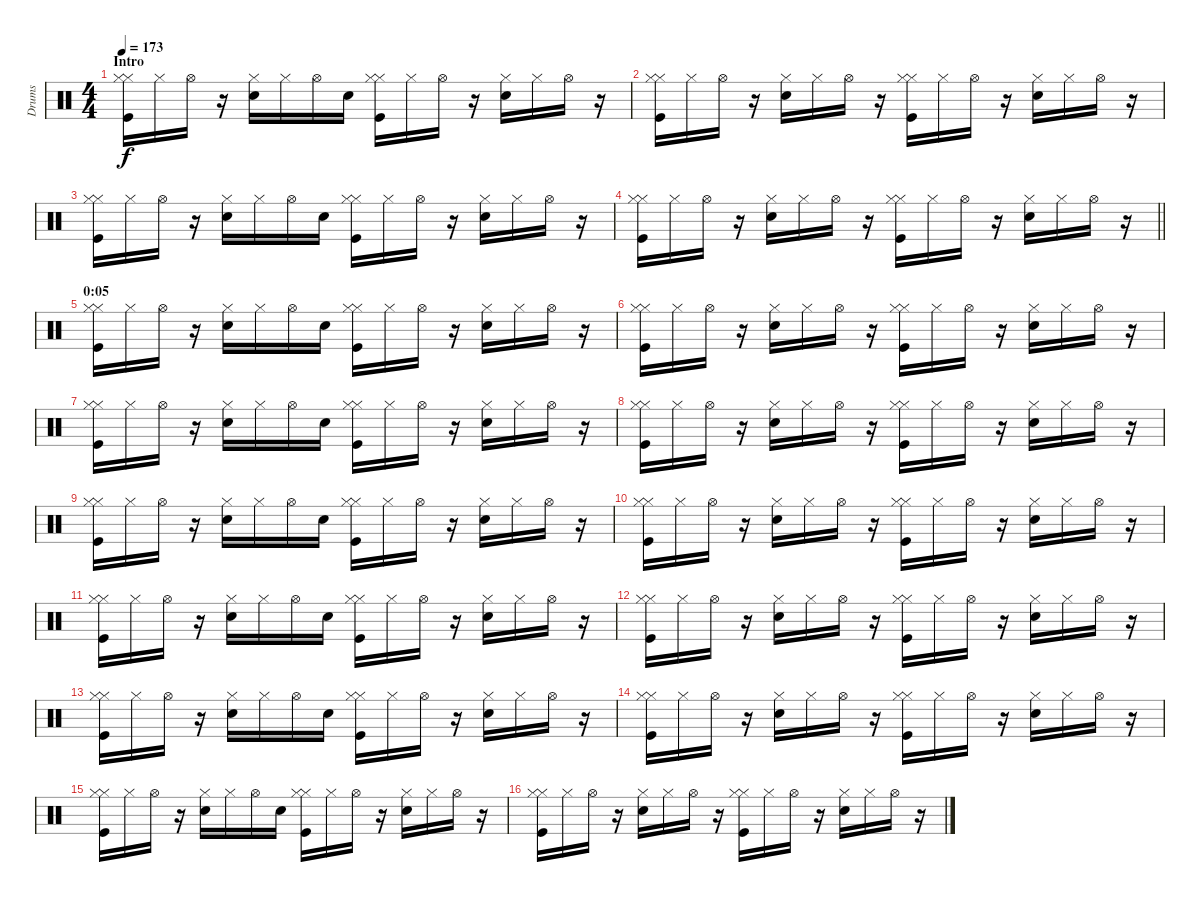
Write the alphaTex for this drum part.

\track ("Drums" "Drums") {instrument percussion}
\staff {score}
\articulation defaults
\ts (4 4)
\section ("" "Intro")
\tempo 173
\clef neutral
\ks c
("Hi-Hat (closed)" "Hi-Hat (closed)" "Kick (hit)").16{dy f} "Hi-Hat (closed)".16 "Hi-Hat (open)".16 r.16 ("Hi-Hat (closed)" "Snare (hit) 2").16 "Hi-Hat (closed)".16 "Hi-Hat (open)".16 "Snare (hit) 2".16 ("Hi-Hat (closed)" "Hi-Hat (closed)" "Kick (hit)").16 "Hi-Hat (closed)".16 "Hi-Hat (open)".16 r.16 ("Hi-Hat (closed)" "Snare (hit) 2").16 "Hi-Hat (closed)".16 "Hi-Hat (open)".16 r.16 |
("Hi-Hat (closed)" "Hi-Hat (closed)" "Kick (hit)").16 "Hi-Hat (closed)".16 "Hi-Hat (open)".16 r.16 ("Hi-Hat (closed)" "Snare (hit) 2").16 "Hi-Hat (closed)".16 "Hi-Hat (open)".16 r.16 ("Hi-Hat (closed)" "Hi-Hat (closed)" "Kick (hit)").16 "Hi-Hat (closed)".16 "Hi-Hat (open)".16 r.16 ("Hi-Hat (closed)" "Snare (hit) 2").16 "Hi-Hat (closed)".16 "Hi-Hat (open)".16 r.16 |
("Hi-Hat (closed)" "Hi-Hat (closed)" "Kick (hit)").16 "Hi-Hat (closed)".16 "Hi-Hat (open)".16 r.16 ("Hi-Hat (closed)" "Snare (hit) 2").16 "Hi-Hat (closed)".16 "Hi-Hat (open)".16 "Snare (hit) 2".16 ("Hi-Hat (closed)" "Hi-Hat (closed)" "Kick (hit)").16 "Hi-Hat (closed)".16 "Hi-Hat (open)".16 r.16 ("Hi-Hat (closed)" "Snare (hit) 2").16 "Hi-Hat (closed)".16 "Hi-Hat (open)".16 r.16 |
\barLineRight lightlight
("Hi-Hat (closed)" "Hi-Hat (closed)" "Kick (hit)").16 "Hi-Hat (closed)".16 "Hi-Hat (open)".16 r.16 ("Hi-Hat (closed)" "Snare (hit) 2").16 "Hi-Hat (closed)".16 "Hi-Hat (open)".16 r.16 ("Hi-Hat (closed)" "Hi-Hat (closed)" "Kick (hit)").16 "Hi-Hat (closed)".16 "Hi-Hat (open)".16 r.16 ("Hi-Hat (closed)" "Snare (hit) 2").16 "Hi-Hat (closed)".16 "Hi-Hat (open)".16 r.16 |
\section ("" "0:05")
("Hi-Hat (closed)" "Hi-Hat (closed)" "Kick (hit)").16 "Hi-Hat (closed)".16 "Hi-Hat (open)".16 r.16 ("Hi-Hat (closed)" "Snare (hit) 2").16 "Hi-Hat (closed)".16 "Hi-Hat (open)".16 "Snare (hit) 2".16 ("Hi-Hat (closed)" "Hi-Hat (closed)" "Kick (hit)").16 "Hi-Hat (closed)".16 "Hi-Hat (open)".16 r.16 ("Hi-Hat (closed)" "Snare (hit) 2").16 "Hi-Hat (closed)".16 "Hi-Hat (open)".16 r.16 |
("Hi-Hat (closed)" "Hi-Hat (closed)" "Kick (hit)").16 "Hi-Hat (closed)".16 "Hi-Hat (open)".16 r.16 ("Hi-Hat (closed)" "Snare (hit) 2").16 "Hi-Hat (closed)".16 "Hi-Hat (open)".16 r.16 ("Hi-Hat (closed)" "Hi-Hat (closed)" "Kick (hit)").16 "Hi-Hat (closed)".16 "Hi-Hat (open)".16 r.16 ("Hi-Hat (closed)" "Snare (hit) 2").16 "Hi-Hat (closed)".16 "Hi-Hat (open)".16 r.16 |
("Hi-Hat (closed)" "Hi-Hat (closed)" "Kick (hit)").16 "Hi-Hat (closed)".16 "Hi-Hat (open)".16 r.16 ("Hi-Hat (closed)" "Snare (hit) 2").16 "Hi-Hat (closed)".16 "Hi-Hat (open)".16 "Snare (hit) 2".16 ("Hi-Hat (closed)" "Hi-Hat (closed)" "Kick (hit)").16 "Hi-Hat (closed)".16 "Hi-Hat (open)".16 r.16 ("Hi-Hat (closed)" "Snare (hit) 2").16 "Hi-Hat (closed)".16 "Hi-Hat (open)".16 r.16 |
("Hi-Hat (closed)" "Hi-Hat (closed)" "Kick (hit)").16 "Hi-Hat (closed)".16 "Hi-Hat (open)".16 r.16 ("Hi-Hat (closed)" "Snare (hit) 2").16 "Hi-Hat (closed)".16 "Hi-Hat (open)".16 r.16 ("Hi-Hat (closed)" "Hi-Hat (closed)" "Kick (hit)").16 "Hi-Hat (closed)".16 "Hi-Hat (open)".16 r.16 ("Hi-Hat (closed)" "Snare (hit) 2").16 "Hi-Hat (closed)".16 "Hi-Hat (open)".16 r.16 |
("Hi-Hat (closed)" "Hi-Hat (closed)" "Kick (hit)").16 "Hi-Hat (closed)".16 "Hi-Hat (open)".16 r.16 ("Hi-Hat (closed)" "Snare (hit) 2").16 "Hi-Hat (closed)".16 "Hi-Hat (open)".16 "Snare (hit) 2".16 ("Hi-Hat (closed)" "Hi-Hat (closed)" "Kick (hit)").16 "Hi-Hat (closed)".16 "Hi-Hat (open)".16 r.16 ("Hi-Hat (closed)" "Snare (hit) 2").16 "Hi-Hat (closed)".16 "Hi-Hat (open)".16 r.16 |
("Hi-Hat (closed)" "Hi-Hat (closed)" "Kick (hit)").16 "Hi-Hat (closed)".16 "Hi-Hat (open)".16 r.16 ("Hi-Hat (closed)" "Snare (hit) 2").16 "Hi-Hat (closed)".16 "Hi-Hat (open)".16 r.16 ("Hi-Hat (closed)" "Hi-Hat (closed)" "Kick (hit)").16 "Hi-Hat (closed)".16 "Hi-Hat (open)".16 r.16 ("Hi-Hat (closed)" "Snare (hit) 2").16 "Hi-Hat (closed)".16 "Hi-Hat (open)".16 r.16 |
("Hi-Hat (closed)" "Hi-Hat (closed)" "Kick (hit)").16 "Hi-Hat (closed)".16 "Hi-Hat (open)".16 r.16 ("Hi-Hat (closed)" "Snare (hit) 2").16 "Hi-Hat (closed)".16 "Hi-Hat (open)".16 "Snare (hit) 2".16 ("Hi-Hat (closed)" "Hi-Hat (closed)" "Kick (hit)").16 "Hi-Hat (closed)".16 "Hi-Hat (open)".16 r.16 ("Hi-Hat (closed)" "Snare (hit) 2").16 "Hi-Hat (closed)".16 "Hi-Hat (open)".16 r.16 |
("Hi-Hat (closed)" "Hi-Hat (closed)" "Kick (hit)").16 "Hi-Hat (closed)".16 "Hi-Hat (open)".16 r.16 ("Hi-Hat (closed)" "Snare (hit) 2").16 "Hi-Hat (closed)".16 "Hi-Hat (open)".16 r.16 ("Hi-Hat (closed)" "Hi-Hat (closed)" "Kick (hit)").16 "Hi-Hat (closed)".16 "Hi-Hat (open)".16 r.16 ("Hi-Hat (closed)" "Snare (hit) 2").16 "Hi-Hat (closed)".16 "Hi-Hat (open)".16 r.16 |
("Hi-Hat (closed)" "Hi-Hat (closed)" "Kick (hit)").16 "Hi-Hat (closed)".16 "Hi-Hat (open)".16 r.16 ("Hi-Hat (closed)" "Snare (hit) 2").16 "Hi-Hat (closed)".16 "Hi-Hat (open)".16 "Snare (hit) 2".16 ("Hi-Hat (closed)" "Hi-Hat (closed)" "Kick (hit)").16 "Hi-Hat (closed)".16 "Hi-Hat (open)".16 r.16 ("Hi-Hat (closed)" "Snare (hit) 2").16 "Hi-Hat (closed)".16 "Hi-Hat (open)".16 r.16 |
("Hi-Hat (closed)" "Hi-Hat (closed)" "Kick (hit)").16 "Hi-Hat (closed)".16 "Hi-Hat (open)".16 r.16 ("Hi-Hat (closed)" "Snare (hit) 2").16 "Hi-Hat (closed)".16 "Hi-Hat (open)".16 r.16 ("Hi-Hat (closed)" "Hi-Hat (closed)" "Kick (hit)").16 "Hi-Hat (closed)".16 "Hi-Hat (open)".16 r.16 ("Hi-Hat (closed)" "Snare (hit) 2").16 "Hi-Hat (closed)".16 "Hi-Hat (open)".16 r.16 |
("Hi-Hat (closed)" "Hi-Hat (closed)" "Kick (hit)").16 "Hi-Hat (closed)".16 "Hi-Hat (open)".16 r.16 ("Hi-Hat (closed)" "Snare (hit) 2").16 "Hi-Hat (closed)".16 "Hi-Hat (open)".16 "Snare (hit) 2".16 ("Hi-Hat (closed)" "Hi-Hat (closed)" "Kick (hit)").16 "Hi-Hat (closed)".16 "Hi-Hat (open)".16 r.16 ("Hi-Hat (closed)" "Snare (hit) 2").16 "Hi-Hat (closed)".16 "Hi-Hat (open)".16 r.16 |
("Hi-Hat (closed)" "Hi-Hat (closed)" "Kick (hit)").16 "Hi-Hat (closed)".16 "Hi-Hat (open)".16 r.16 ("Hi-Hat (closed)" "Snare (hit) 2").16 "Hi-Hat (closed)".16 "Hi-Hat (open)".16 r.16 ("Hi-Hat (closed)" "Hi-Hat (closed)" "Kick (hit)").16 "Hi-Hat (closed)".16 "Hi-Hat (open)".16 r.16 ("Hi-Hat (closed)" "Snare (hit) 2").16 "Hi-Hat (closed)".16 "Hi-Hat (open)".16 r.16
